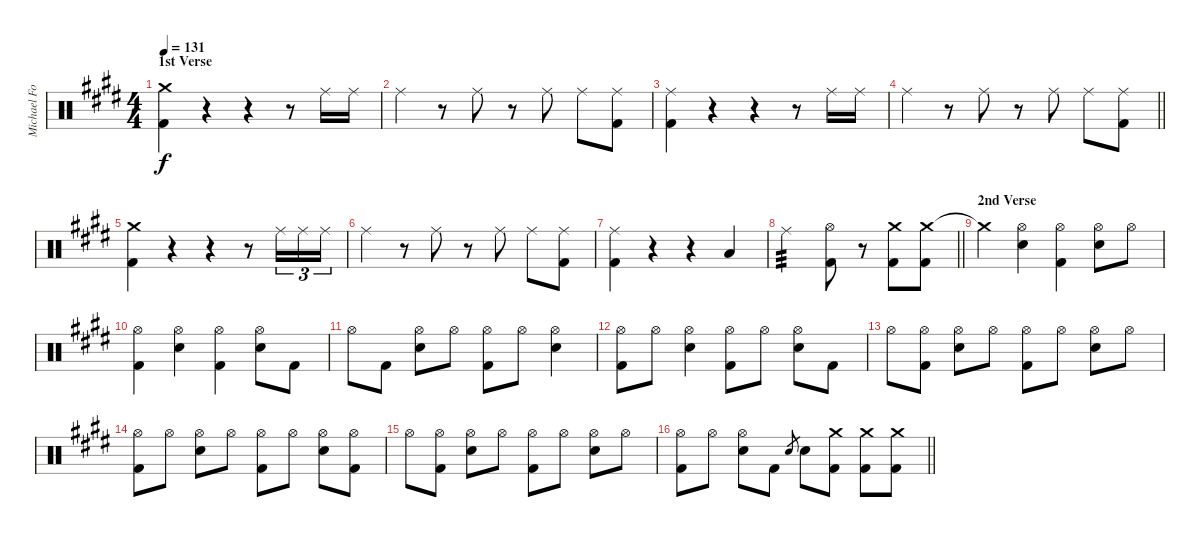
\track ("Michael Foster Drums" "Michael Fo") {instrument percussion}
\staff {score}
\articulation defaults
\ts (4 4)
\section ("" "1st Verse")
\tempo 131
\clef neutral
\ks e
("Crash medium (hit)" "Kick (hit) 2").4{dy f} r.4 r.4 r.8 "Ride (middle)".16 "Ride (middle)".16 |
"Ride (middle)".4 r.8 "Ride (middle)".8 r.8 "Ride (middle)".8 "Ride (middle)".8 ("Ride (middle)" "Kick (hit) 2").8 |
("Ride (middle)" "Kick (hit) 2").4 r.4 r.4 r.8 "Ride (middle)".16 "Ride (middle)".16 |
\barLineRight lightlight "Ride (middle)".4
r.8 "Ride (middle)".8 r.8 "Ride (middle)".8 "Ride (middle)".8 ("Ride (middle)" "Kick (hit) 2").8 |
("Crash medium (hit)" "Kick (hit) 2").4 r.4 r.4 r.8 "Ride (middle)".16{tu (3 2)} "Ride (middle)".16{tu (3 2)} "Ride (middle)".16{tu (3 2)} |
"Ride (middle)".4 r.8 "Ride (middle)".8 r.8 "Ride (middle)".8 "Ride (middle)".8 ("Ride (middle)" "Kick (hit) 2").8 |
("Ride (middle)" "Kick (hit) 2").4 r.4 r.4 "Low Floor Tom (hit)".4 |
\barLineRight lightlight "Ride (middle)".2{tp 3}
("Hi-Hat (open)" "Kick (hit) 2").8{volume 14} r.8 ("Crash medium (hit)" "Kick (hit) 2").8 ("Crash medium (hit)" "Kick (hit) 2").8 |
\section ("" "2nd Verse")
"Crash medium (hit)"{t}.4 ("Hi-Hat (open)" "Snare (hit) 2").4 ("Hi-Hat (open)" "Kick (hit) 2").4 ("Hi-Hat (open)" "Snare (hit) 2").8 "Hi-Hat (open)".8 |
("Hi-Hat (open)" "Kick (hit) 2").4 ("Hi-Hat (open)" "Snare (hit) 2").4 ("Hi-Hat (open)" "Kick (hit) 2").4 ("Hi-Hat (open)" "Snare (hit) 2").8 "Kick (hit) 2".8 |
"Hi-Hat (open)".8 "Kick (hit) 2".8 ("Hi-Hat (open)" "Snare (hit) 2").8 "Hi-Hat (open)".8 ("Hi-Hat (open)" "Kick (hit) 2").8 "Hi-Hat (open)".8 ("Hi-Hat (open)" "Snare (hit) 2").4 |
("Hi-Hat (open)" "Kick (hit) 2").8 "Hi-Hat (open)".8 ("Hi-Hat (open)" "Snare (hit) 2").4 ("Hi-Hat (open)" "Kick (hit) 2").8 "Hi-Hat (open)".8 ("Hi-Hat (open)" "Snare (hit) 2").8 "Kick (hit) 2".8 |
"Hi-Hat (open)".8 ("Hi-Hat (open)" "Kick (hit) 2").8 ("Hi-Hat (open)" "Snare (hit) 2").8 "Hi-Hat (open)".8 ("Hi-Hat (open)" "Kick (hit) 2").8 "Hi-Hat (open)".8 ("Hi-Hat (open)" "Snare (hit) 2").8 "Hi-Hat (open)".8 |
("Hi-Hat (open)" "Kick (hit) 2").8 "Hi-Hat (open)".8 ("Hi-Hat (open)" "Snare (hit) 2").8 "Hi-Hat (open)".8 ("Hi-Hat (open)" "Kick (hit) 2").8 "Hi-Hat (open)".8 ("Hi-Hat (open)" "Snare (hit) 2").8 ("Hi-Hat (open)" "Kick (hit) 2").8 |
"Hi-Hat (open)".8 ("Hi-Hat (open)" "Kick (hit) 2").8 ("Hi-Hat (open)" "Snare (hit) 2").8 "Hi-Hat (open)".8 ("Hi-Hat (open)" "Kick (hit) 2").8 "Hi-Hat (open)".8 ("Hi-Hat (open)" "Snare (hit) 2").8 "Hi-Hat (open)".8 |
\barLineRight lightlight
("Hi-Hat (open)" "Kick (hit) 2").8 "Hi-Hat (open)".8 ("Hi-Hat (open)" "Snare (hit) 2").8 "Kick (hit) 2".8 "Snare (hit) 2".8{gr} "Snare (hit) 2".8 ("Crash medium (hit)" "Kick (hit) 2").8 ("Crash medium (hit)" "Kick (hit) 2").8 ("Crash medium (hit)" "Kick (hit) 2").8
